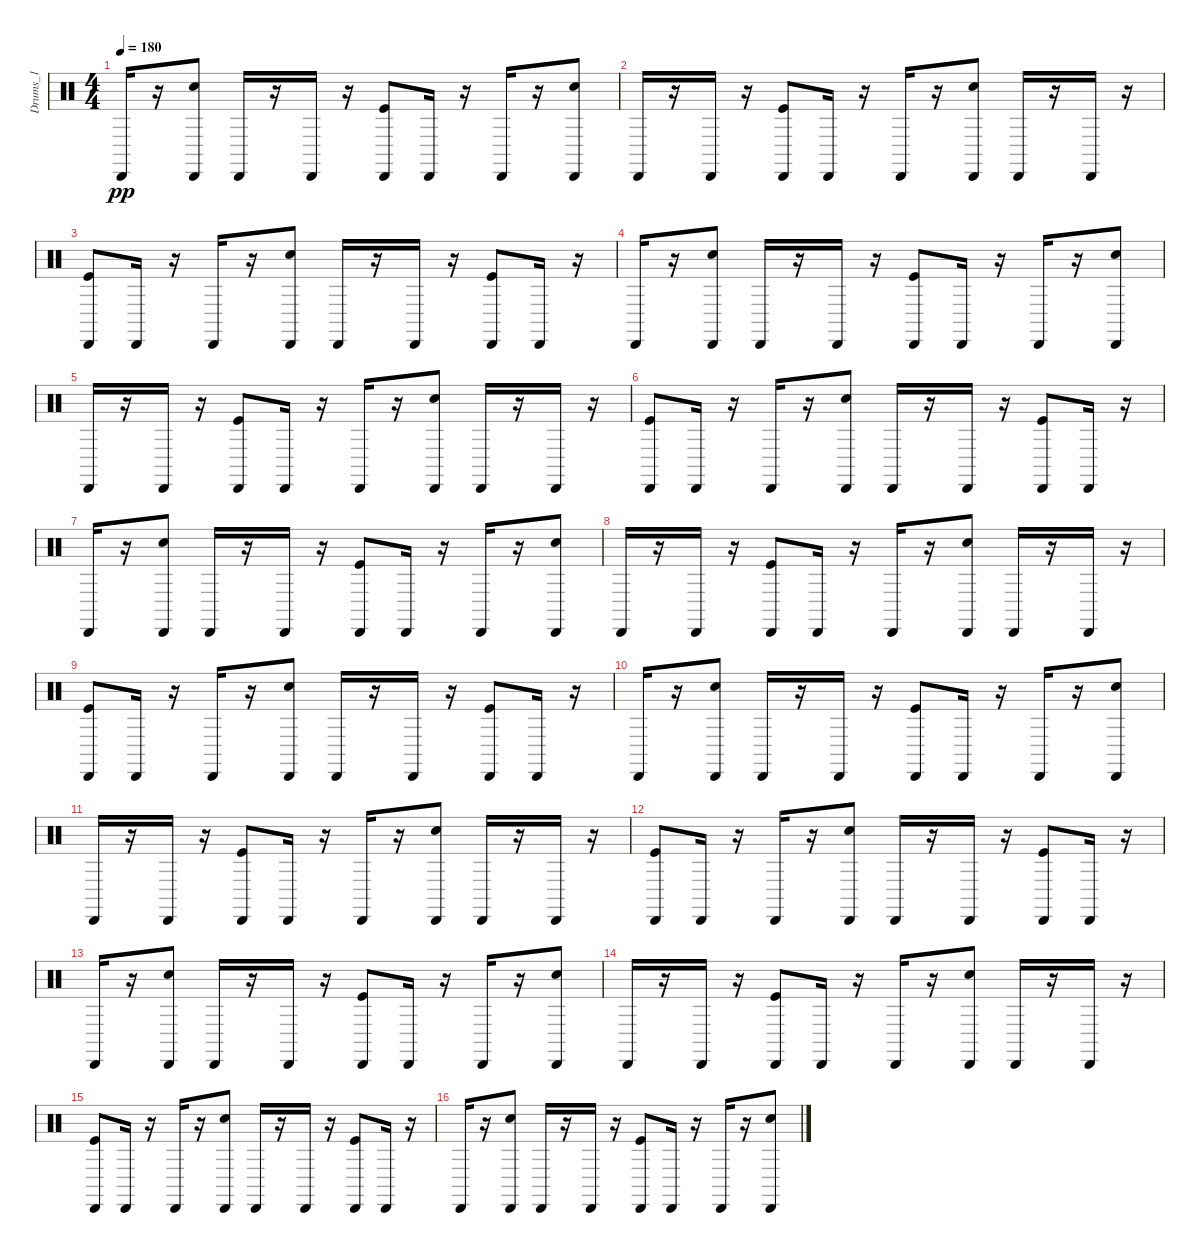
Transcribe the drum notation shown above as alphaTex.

\track ("Drums_1" "Drums_1") {instrument percussion}
\staff {score}
\articulation defaults
\ts (4 4)
\tempo 180
\clef neutral
\ks c "Cabasa (hit)".16{dy pp}
r.16 ("Snare (hit) 2" "Cabasa (hit)").8 "Cabasa (hit)".16 r.16 "Cabasa (hit)".16 r.16 ("Kick (hit)" "Cabasa (hit)").8 "Cabasa (hit)".16 r.16 "Cabasa (hit)".16 r.16 ("Snare (hit) 2" "Cabasa (hit)").8 |
"Cabasa (hit)".16 r.16 "Cabasa (hit)".16 r.16 ("Kick (hit)" "Cabasa (hit)").8 "Cabasa (hit)".16 r.16 "Cabasa (hit)".16 r.16 ("Snare (hit) 2" "Cabasa (hit)").8 "Cabasa (hit)".16 r.16 "Cabasa (hit)".16 r.16 |
("Kick (hit)" "Cabasa (hit)").8 "Cabasa (hit)".16 r.16 "Cabasa (hit)".16 r.16 ("Snare (hit) 2" "Cabasa (hit)").8 "Cabasa (hit)".16 r.16 "Cabasa (hit)".16 r.16 ("Kick (hit)" "Cabasa (hit)").8 "Cabasa (hit)".16 r.16 |
"Cabasa (hit)".16 r.16 ("Snare (hit) 2" "Cabasa (hit)").8 "Cabasa (hit)".16 r.16 "Cabasa (hit)".16 r.16 ("Kick (hit)" "Cabasa (hit)").8 "Cabasa (hit)".16 r.16 "Cabasa (hit)".16 r.16 ("Snare (hit) 2" "Cabasa (hit)").8 |
"Cabasa (hit)".16 r.16 "Cabasa (hit)".16 r.16 ("Kick (hit)" "Cabasa (hit)").8 "Cabasa (hit)".16 r.16 "Cabasa (hit)".16 r.16 ("Snare (hit) 2" "Cabasa (hit)").8 "Cabasa (hit)".16 r.16 "Cabasa (hit)".16 r.16 |
("Kick (hit)" "Cabasa (hit)").8 "Cabasa (hit)".16 r.16 "Cabasa (hit)".16 r.16 ("Snare (hit) 2" "Cabasa (hit)").8 "Cabasa (hit)".16 r.16 "Cabasa (hit)".16 r.16 ("Kick (hit)" "Cabasa (hit)").8 "Cabasa (hit)".16 r.16 |
"Cabasa (hit)".16 r.16 ("Snare (hit) 2" "Cabasa (hit)").8 "Cabasa (hit)".16 r.16 "Cabasa (hit)".16 r.16 ("Kick (hit)" "Cabasa (hit)").8 "Cabasa (hit)".16 r.16 "Cabasa (hit)".16 r.16 ("Snare (hit) 2" "Cabasa (hit)").8 |
"Cabasa (hit)".16 r.16 "Cabasa (hit)".16 r.16 ("Kick (hit)" "Cabasa (hit)").8 "Cabasa (hit)".16 r.16 "Cabasa (hit)".16 r.16 ("Snare (hit) 2" "Cabasa (hit)").8 "Cabasa (hit)".16 r.16 "Cabasa (hit)".16 r.16 |
("Kick (hit)" "Cabasa (hit)").8 "Cabasa (hit)".16 r.16 "Cabasa (hit)".16 r.16 ("Snare (hit) 2" "Cabasa (hit)").8 "Cabasa (hit)".16 r.16 "Cabasa (hit)".16 r.16 ("Kick (hit)" "Cabasa (hit)").8 "Cabasa (hit)".16 r.16 |
"Cabasa (hit)".16 r.16 ("Snare (hit) 2" "Cabasa (hit)").8 "Cabasa (hit)".16 r.16 "Cabasa (hit)".16 r.16 ("Kick (hit)" "Cabasa (hit)").8 "Cabasa (hit)".16 r.16 "Cabasa (hit)".16 r.16 ("Snare (hit) 2" "Cabasa (hit)").8 |
"Cabasa (hit)".16 r.16 "Cabasa (hit)".16 r.16 ("Kick (hit)" "Cabasa (hit)").8 "Cabasa (hit)".16 r.16 "Cabasa (hit)".16 r.16 ("Snare (hit) 2" "Cabasa (hit)").8 "Cabasa (hit)".16 r.16 "Cabasa (hit)".16 r.16 |
("Kick (hit)" "Cabasa (hit)").8 "Cabasa (hit)".16 r.16 "Cabasa (hit)".16 r.16 ("Snare (hit) 2" "Cabasa (hit)").8 "Cabasa (hit)".16 r.16 "Cabasa (hit)".16 r.16 ("Kick (hit)" "Cabasa (hit)").8 "Cabasa (hit)".16 r.16 |
"Cabasa (hit)".16 r.16 ("Snare (hit) 2" "Cabasa (hit)").8 "Cabasa (hit)".16 r.16 "Cabasa (hit)".16 r.16 ("Kick (hit)" "Cabasa (hit)").8 "Cabasa (hit)".16 r.16 "Cabasa (hit)".16 r.16 ("Snare (hit) 2" "Cabasa (hit)").8 |
"Cabasa (hit)".16 r.16 "Cabasa (hit)".16 r.16 ("Kick (hit)" "Cabasa (hit)").8 "Cabasa (hit)".16 r.16 "Cabasa (hit)".16 r.16 ("Snare (hit) 2" "Cabasa (hit)").8 "Cabasa (hit)".16 r.16 "Cabasa (hit)".16 r.16 |
("Kick (hit)" "Cabasa (hit)").8 "Cabasa (hit)".16 r.16 "Cabasa (hit)".16 r.16 ("Snare (hit) 2" "Cabasa (hit)").8 "Cabasa (hit)".16 r.16 "Cabasa (hit)".16 r.16 ("Kick (hit)" "Cabasa (hit)").8 "Cabasa (hit)".16 r.16 |
"Cabasa (hit)".16 r.16 ("Snare (hit) 2" "Cabasa (hit)").8 "Cabasa (hit)".16 r.16 "Cabasa (hit)".16 r.16 ("Kick (hit)" "Cabasa (hit)").8 "Cabasa (hit)".16 r.16 "Cabasa (hit)".16 r.16 ("Snare (hit) 2" "Cabasa (hit)").8
